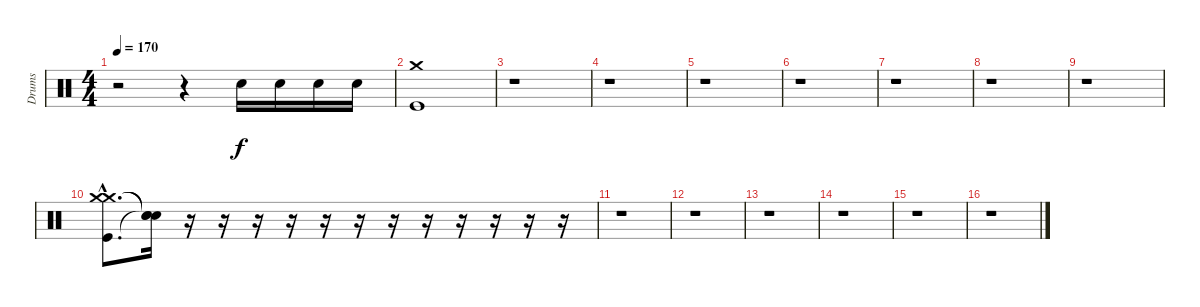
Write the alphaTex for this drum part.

\track ("Drums" "Drums") {instrument percussion}
\staff {score}
\articulation defaults
\ts (4 4)
\tempo 170
\clef neutral
\ks c
r.2{dy f} r.4 "Electric Snare (hit)".16 "Electric Snare (hit)".16 "Electric Snare (hit)".16 "Electric Snare (hit)".16 |
("Crash medium (hit)" "Kick (hit)").1 |
r.1 |
r.1 |
r.1 |
r.1 |
r.1 |
r.1 |
r.1 |
("Crash medium (hit)"{hac} "Crash medium (hit)"{hac} "Kick (hit)"{hac}).8{d} ("Snare (hit)"{t} "Snare (hit)"{t} "Snare (hit)"{t}).16{volume 0} r.16{volume 12} r.16{volume 0} r.16{volume 12} r.16{volume 0} r.16{volume 12} r.16{volume 0} r.16{volume 12} r.16{volume 0} r.16{volume 12} r.16{volume 0} r.16{volume 12} r.16{volume 0} |
r.1 |
r.1 |
r.1 |
r.1 |
r.1 |
r.1
